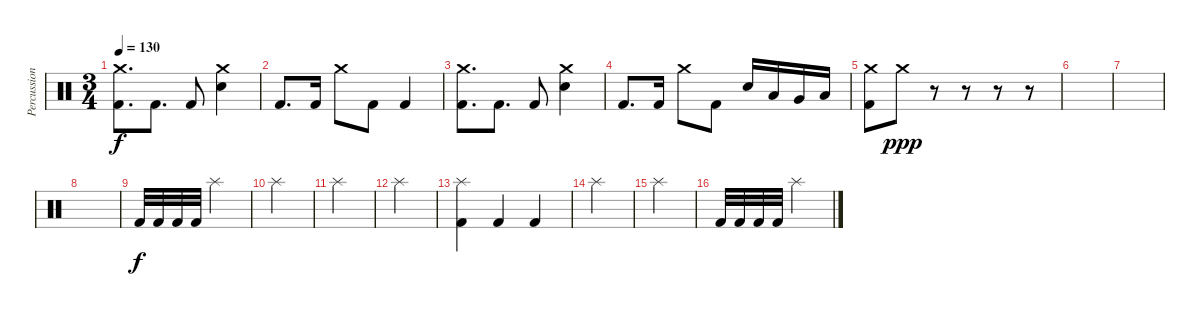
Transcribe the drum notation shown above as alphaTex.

\track ("Percussion" "Percussion") {instrument percussion}
\staff {score}
\articulation defaults
\ts (3 4)
\tempo 130
\clef neutral
\ks c
("Crash medium (hit)" "Kick (hit) 2").8{d dy f} "Kick (hit) 2".8{d} "Kick (hit) 2".8 ("Crash medium (hit)" "Electric Snare (hit)").4 |
"Kick (hit) 2".8{d} "Kick (hit) 2".16 "Crash medium (hit)".8 "Kick (hit) 2".8 "Kick (hit) 2".4 |
("Crash medium (hit)" "Kick (hit) 2").8{d} "Kick (hit) 2".8{d} "Kick (hit) 2".8 ("Crash medium (hit)" "Electric Snare (hit)").4 |
"Kick (hit) 2".8{d} "Kick (hit) 2".16 "Crash medium (hit)".8 "Kick (hit) 2".8 "Electric Snare (hit)".16 "Low Tom (hit)".16 "Very Low Tom (hit)".16 "Low Floor Tom (hit)".16 |
("Crash medium (hit)" "Kick (hit) 2").8 "Crash medium (hit)".8{dy ppp} r.8 r.8 r.8 r.8 |
|
|
|
"Kick (hit) 2".32{dy f} "Kick (hit) 2".32 "Kick (hit) 2".32 "Kick (hit) 2".32 "Splash (hit)".4 |
"Splash (hit)".4 |
"Splash (hit)".4 |
"Splash (hit)".4 |
("Splash (hit)" "Kick (hit) 2").4 "Kick (hit) 2".4 "Kick (hit) 2".4 |
"Splash (hit)".4 |
"Splash (hit)".4 |
"Kick (hit) 2".32 "Kick (hit) 2".32 "Kick (hit) 2".32 "Kick (hit) 2".32 "Splash (hit)".4
